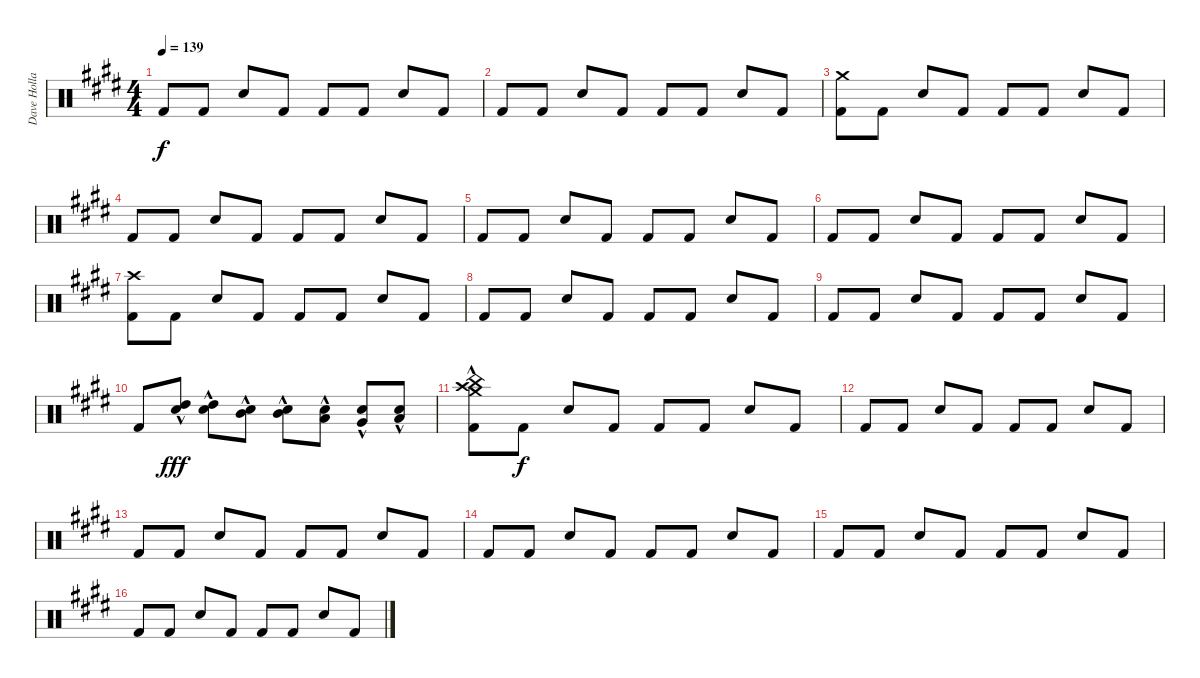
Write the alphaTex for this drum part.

\track ("Dave Holland" "Dave Holla") {instrument percussion}
\staff {score}
\articulation defaults
\ts (4 4)
\tempo 139
\clef neutral
\ks c#minor "Kick (hit) 2".8{dy f} "Kick (hit) 2".8 "Snare (hit) 2".8 "Kick (hit) 2".8 "Kick (hit) 2".8 "Kick (hit) 2".8 "Snare (hit) 2".8 "Kick (hit) 2".8
|
"Kick (hit) 2".8 "Kick (hit) 2".8 "Snare (hit) 2".8 "Kick (hit) 2".8 "Kick (hit) 2".8 "Kick (hit) 2".8 "Snare (hit) 2".8 "Kick (hit) 2".8 |
("Crash medium (hit)" "Kick (hit) 2").8 "Kick (hit) 2".8 "Snare (hit) 2".8 "Kick (hit) 2".8 "Kick (hit) 2".8 "Kick (hit) 2".8 "Snare (hit) 2".8 "Kick (hit) 2".8 |
"Kick (hit) 2".8 "Kick (hit) 2".8 "Snare (hit) 2".8 "Kick (hit) 2".8 "Kick (hit) 2".8 "Kick (hit) 2".8 "Snare (hit) 2".8 "Kick (hit) 2".8 |
"Kick (hit) 2".8 "Kick (hit) 2".8 "Snare (hit) 2".8 "Kick (hit) 2".8 "Kick (hit) 2".8 "Kick (hit) 2".8 "Snare (hit) 2".8 "Kick (hit) 2".8 |
"Kick (hit) 2".8 "Kick (hit) 2".8 "Snare (hit) 2".8 "Kick (hit) 2".8 "Kick (hit) 2".8 "Kick (hit) 2".8 "Snare (hit) 2".8 "Kick (hit) 2".8 |
("Crash high (hit)" "Kick (hit) 2").8 "Kick (hit) 2".8 "Snare (hit) 2".8 "Kick (hit) 2".8 "Kick (hit) 2".8 "Kick (hit) 2".8 "Snare (hit) 2".8 "Kick (hit) 2".8 |
"Kick (hit) 2".8 "Kick (hit) 2".8 "Snare (hit) 2".8 "Kick (hit) 2".8 "Kick (hit) 2".8 "Kick (hit) 2".8 "Snare (hit) 2".8 "Kick (hit) 2".8 |
"Kick (hit) 2".8 "Kick (hit) 2".8 "Snare (hit) 2".8 "Kick (hit) 2".8 "Kick (hit) 2".8 "Kick (hit) 2".8 "Snare (hit) 2".8 "Kick (hit) 2".8 |
"Kick (hit) 2".8{balance 0} ("High Tom (hit)"{hac} "Snare (hit) 2").8{dy fff} ("High Tom (hit)"{hac} "Snare (hit) 2").8{balance 16} ("Mid Tom (hit)"{hac} "Snare (hit) 2").8 ("Mid Tom (hit)"{hac} "Snare (hit) 2").8{balance 0} ("Low Tom (hit)"{hac} "Snare (hit) 2").8 ("Very Low Tom (hit)"{hac} "Snare (hit) 2").8{balance 16} ("Low Floor Tom (hit)"{hac} "Snare (hit) 2").8 |
("Crash medium (hit)"{hac} "Crash high (hit)"{hac} "China (hit)"{hac} "Kick (hit) 2"{hac}).8{balance 8} "Kick (hit) 2".8{dy f} "Snare (hit) 2".8 "Kick (hit) 2".8 "Kick (hit) 2".8 "Kick (hit) 2".8 "Snare (hit) 2".8 "Kick (hit) 2".8 |
"Kick (hit) 2".8 "Kick (hit) 2".8 "Snare (hit) 2".8 "Kick (hit) 2".8 "Kick (hit) 2".8 "Kick (hit) 2".8 "Snare (hit) 2".8 "Kick (hit) 2".8 |
"Kick (hit) 2".8 "Kick (hit) 2".8 "Snare (hit) 2".8 "Kick (hit) 2".8 "Kick (hit) 2".8 "Kick (hit) 2".8 "Snare (hit) 2".8 "Kick (hit) 2".8 |
"Kick (hit) 2".8 "Kick (hit) 2".8 "Snare (hit) 2".8 "Kick (hit) 2".8 "Kick (hit) 2".8 "Kick (hit) 2".8 "Snare (hit) 2".8 "Kick (hit) 2".8 |
"Kick (hit) 2".8 "Kick (hit) 2".8 "Snare (hit) 2".8 "Kick (hit) 2".8 "Kick (hit) 2".8 "Kick (hit) 2".8 "Snare (hit) 2".8 "Kick (hit) 2".8 |
"Kick (hit) 2".8 "Kick (hit) 2".8 "Snare (hit) 2".8 "Kick (hit) 2".8 "Kick (hit) 2".8 "Kick (hit) 2".8 "Snare (hit) 2".8 "Kick (hit) 2".8
